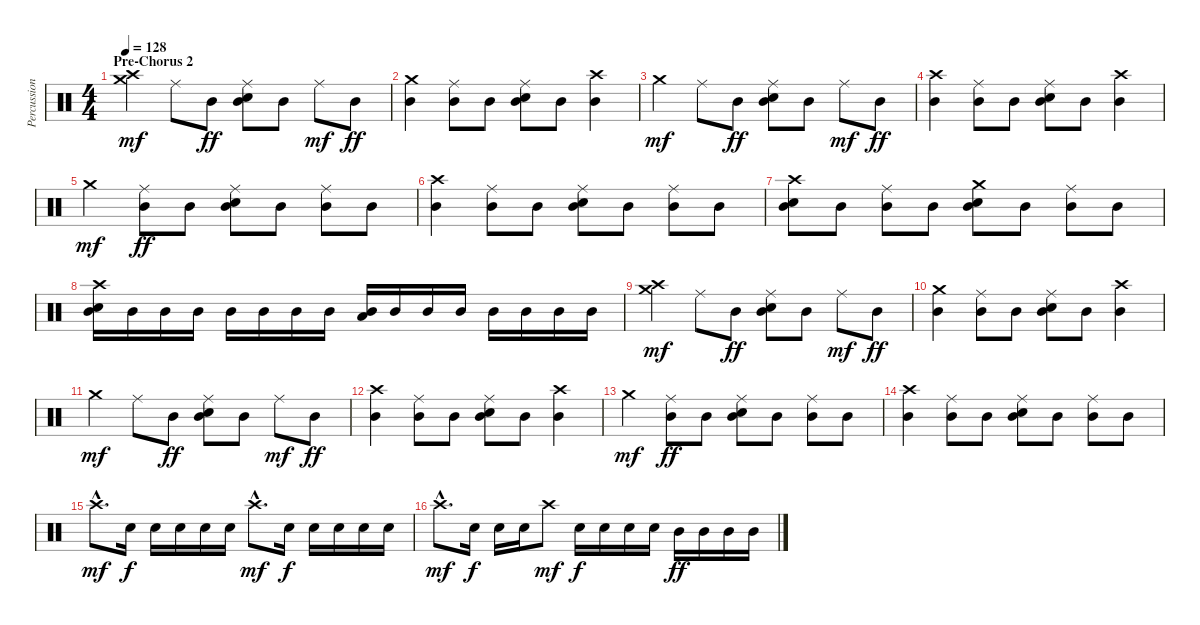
\track ("Percussion" "Percussion") {instrument percussion}
\staff {score}
\articulation defaults
\ts (4 4)
\section ("" "Pre-Chorus 2")
\tempo 128
\clef neutral
\ks c
("Crash medium (hit)" "Crash high (hit)").4{dy mf} "Ride (middle)".8 "Mid Tom (hit)".8{dy ff} ("Ride (middle)" "Electric Snare (hit)" "Mid Tom (hit)").8 "Mid Tom (hit)".8 "Ride (middle)".8{dy mf} "Mid Tom (hit)".8{dy ff} |
("Crash medium (hit)" "Mid Tom (hit)").4 ("Ride (middle)" "Mid Tom (hit)").8 "Mid Tom (hit)".8 ("Ride (middle)" "Electric Snare (hit)" "Mid Tom (hit)").8 "Mid Tom (hit)".8 ("Crash high (hit)" "Mid Tom (hit)").4 |
"Crash medium (hit)".4{dy mf} "Ride (middle)".8 "Mid Tom (hit)".8{dy ff} ("Ride (middle)" "Electric Snare (hit)" "Mid Tom (hit)").8 "Mid Tom (hit)".8 "Ride (middle)".8{dy mf} "Mid Tom (hit)".8{dy ff} |
("Crash high (hit)" "Mid Tom (hit)").4 ("Ride (middle)" "Mid Tom (hit)").8 "Mid Tom (hit)".8 ("Ride (middle)" "Electric Snare (hit)" "Mid Tom (hit)").8 "Mid Tom (hit)".8 ("Crash high (hit)" "Mid Tom (hit)").4 |
"Crash medium (hit)".4{dy mf} ("Ride (middle)" "Mid Tom (hit)").8{dy ff} "Mid Tom (hit)".8 ("Ride (middle)" "Electric Snare (hit)" "Mid Tom (hit)").8 "Mid Tom (hit)".8 ("Ride (middle)" "Mid Tom (hit)").8 "Mid Tom (hit)".8 |
("Crash high (hit)" "Mid Tom (hit)").4 ("Ride (middle)" "Mid Tom (hit)").8 "Mid Tom (hit)".8 ("Ride (middle)" "Electric Snare (hit)" "Mid Tom (hit)").8 "Mid Tom (hit)".8 ("Ride (middle)" "Mid Tom (hit)").8 "Mid Tom (hit)".8 |
("Crash high (hit)" "Electric Snare (hit)" "Mid Tom (hit)").8 "Mid Tom (hit)".8 ("Ride (middle)" "Mid Tom (hit)").8 "Mid Tom (hit)".8 ("Crash medium (hit)" "Electric Snare (hit)" "Mid Tom (hit)").8 "Mid Tom (hit)".8 ("Ride (middle)" "Mid Tom (hit)").8 "Mid Tom (hit)".8 |
("Crash high (hit)" "Electric Snare (hit)" "Mid Tom (hit)").16 "Mid Tom (hit)".16 "Mid Tom (hit)".16 "Mid Tom (hit)".16 "Mid Tom (hit)".16 "Mid Tom (hit)".16 "Mid Tom (hit)".16 "Mid Tom (hit)".16 ("Low Floor Tom (hit)" "Mid Tom (hit)").16 "Mid Tom (hit)".16 "Mid Tom (hit)".16 "Mid Tom (hit)".16 "Mid Tom (hit)".16 "Mid Tom (hit)".16 "Mid Tom (hit)".16 "Mid Tom (hit)".16 |
("Crash high (hit)" "Crash medium (hit)").4{dy mf} "Ride (middle)".8 "Mid Tom (hit)".8{dy ff} ("Ride (middle)" "Electric Snare (hit)" "Mid Tom (hit)").8 "Mid Tom (hit)".8 "Ride (middle)".8{dy mf} "Mid Tom (hit)".8{dy ff} |
("Crash medium (hit)" "Mid Tom (hit)").4 ("Ride (middle)" "Mid Tom (hit)").8 "Mid Tom (hit)".8 ("Ride (middle)" "Electric Snare (hit)" "Mid Tom (hit)").8 "Mid Tom (hit)".8 ("Crash high (hit)" "Mid Tom (hit)").4 |
"Crash medium (hit)".4{dy mf} "Ride (middle)".8 "Mid Tom (hit)".8{dy ff} ("Ride (middle)" "Electric Snare (hit)" "Mid Tom (hit)").8 "Mid Tom (hit)".8 "Ride (middle)".8{dy mf} "Mid Tom (hit)".8{dy ff} |
("Crash high (hit)" "Mid Tom (hit)").4 ("Ride (middle)" "Mid Tom (hit)").8 "Mid Tom (hit)".8 ("Ride (middle)" "Electric Snare (hit)" "Mid Tom (hit)").8 "Mid Tom (hit)".8 ("Crash high (hit)" "Mid Tom (hit)").4 |
"Crash medium (hit)".4{dy mf} ("Ride (middle)" "Mid Tom (hit)").8{dy ff} "Mid Tom (hit)".8 ("Ride (middle)" "Electric Snare (hit)" "Mid Tom (hit)").8 "Mid Tom (hit)".8 ("Ride (middle)" "Mid Tom (hit)").8 "Mid Tom (hit)".8 |
("Crash high (hit)" "Mid Tom (hit)").4 ("Ride (middle)" "Mid Tom (hit)").8 "Mid Tom (hit)".8 ("Ride (middle)" "Electric Snare (hit)" "Mid Tom (hit)").8 "Mid Tom (hit)".8 ("Ride (middle)" "Mid Tom (hit)").8 "Mid Tom (hit)".8 |
"Crash high (hit)"{hac}.8{d dy mf} "Snare (hit) 2".16{dy f} "Snare (hit) 2".16 "Snare (hit) 2".16 "Snare (hit) 2".16 "Snare (hit) 2".16 "Crash high (hit)"{hac}.8{d dy mf} "Snare (hit) 2".16{dy f} "Snare (hit) 2".16 "Snare (hit) 2".16 "Snare (hit) 2".16 "Snare (hit) 2".16 |
"Crash high (hit)"{hac}.8{d dy mf} "Snare (hit) 2".16{dy f} "Snare (hit) 2".16 "Snare (hit) 2".16 "Crash high (hit)".8{dy mf} "Snare (hit) 2".16{dy f} "Snare (hit) 2".16 "Snare (hit) 2".16 "Snare (hit) 2".16 "Mid Tom (hit)".16{dy ff} "Mid Tom (hit)".16 "Mid Tom (hit)".16 "Mid Tom (hit)".16
